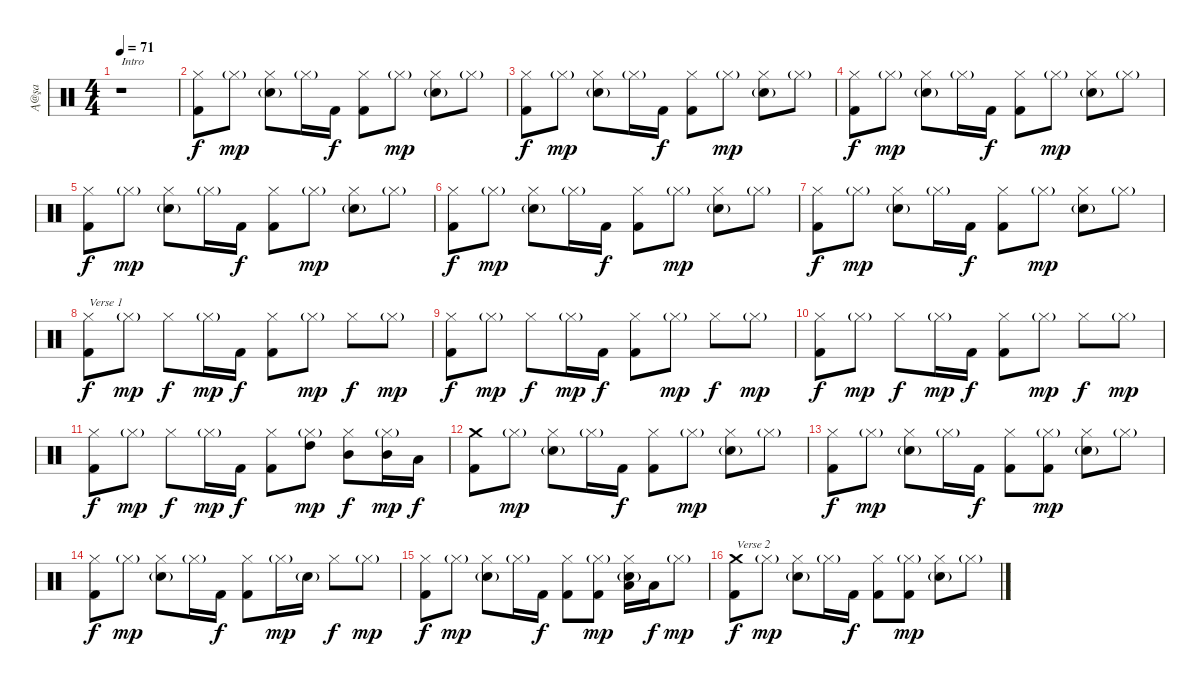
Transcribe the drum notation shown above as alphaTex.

\track ("Ą@şa" "Ą@şa") {instrument percussion}
\staff {score}
\articulation defaults
\ts (4 4)
\tempo 71
\clef neutral
\ks c
r.1{txt "Intro" dy f} |
("Hi-Hat (closed)" "Kick (hit) 2").8 "Hi-Hat (closed)"{g}.8{dy mp} ("Hi-Hat (closed)" "Snare (hit) 2"{g}).8 "Hi-Hat (closed)"{g}.16 "Kick (hit) 2".16{dy f} ("Hi-Hat (closed)" "Kick (hit) 2").8 "Hi-Hat (closed)"{g}.8{dy mp} ("Hi-Hat (closed)" "Snare (hit) 2"{g}).8 "Hi-Hat (closed)"{g}.8 |
("Hi-Hat (closed)" "Kick (hit) 2").8{dy f} "Hi-Hat (closed)"{g}.8{dy mp} ("Hi-Hat (closed)" "Snare (hit) 2"{g}).8 "Hi-Hat (closed)"{g}.16 "Kick (hit) 2".16{dy f} ("Hi-Hat (closed)" "Kick (hit) 2").8 "Hi-Hat (closed)"{g}.8{dy mp} ("Hi-Hat (closed)" "Snare (hit) 2"{g}).8 "Hi-Hat (closed)"{g}.8 |
("Hi-Hat (closed)" "Kick (hit) 2").8{dy f} "Hi-Hat (closed)"{g}.8{dy mp} ("Hi-Hat (closed)" "Snare (hit) 2"{g}).8 "Hi-Hat (closed)"{g}.16 "Kick (hit) 2".16{dy f} ("Hi-Hat (closed)" "Kick (hit) 2").8 "Hi-Hat (closed)"{g}.8{dy mp} ("Hi-Hat (closed)" "Snare (hit) 2"{g}).8 "Hi-Hat (closed)"{g}.8 |
("Hi-Hat (closed)" "Kick (hit) 2").8{dy f} "Hi-Hat (closed)"{g}.8{dy mp} ("Hi-Hat (closed)" "Snare (hit) 2"{g}).8 "Hi-Hat (closed)"{g}.16 "Kick (hit) 2".16{dy f} ("Hi-Hat (closed)" "Kick (hit) 2").8 "Hi-Hat (closed)"{g}.8{dy mp} ("Hi-Hat (closed)" "Snare (hit) 2"{g}).8 "Hi-Hat (closed)"{g}.8 |
("Hi-Hat (closed)" "Kick (hit) 2").8{dy f} "Hi-Hat (closed)"{g}.8{dy mp} ("Hi-Hat (closed)" "Snare (hit) 2"{g}).8 "Hi-Hat (closed)"{g}.16 "Kick (hit) 2".16{dy f} ("Hi-Hat (closed)" "Kick (hit) 2").8 "Hi-Hat (closed)"{g}.8{dy mp} ("Hi-Hat (closed)" "Snare (hit) 2"{g}).8 "Hi-Hat (closed)"{g}.8 |
("Hi-Hat (closed)" "Kick (hit) 2").8{dy f} "Hi-Hat (closed)"{g}.8{dy mp} ("Hi-Hat (closed)" "Snare (hit) 2"{g}).8 "Hi-Hat (closed)"{g}.16 "Kick (hit) 2".16{dy f} ("Hi-Hat (closed)" "Kick (hit) 2").8 "Hi-Hat (closed)"{g}.8{dy mp} ("Hi-Hat (closed)" "Snare (hit) 2"{g}).8 "Hi-Hat (closed)"{g}.8 |
("Hi-Hat (closed)" "Kick (hit) 2").8{txt "Verse 1" dy f} "Hi-Hat (closed)"{g}.8{dy mp} "Hi-Hat (closed)".8{dy f} "Hi-Hat (closed)"{g}.16{dy mp} "Kick (hit) 2".16{dy f} ("Hi-Hat (closed)" "Kick (hit) 2").8 "Hi-Hat (closed)"{g}.8{dy mp} "Hi-Hat (closed)".8{dy f} "Hi-Hat (closed)"{g}.8{dy mp} |
("Hi-Hat (closed)" "Kick (hit) 2").8{dy f} "Hi-Hat (closed)"{g}.8{dy mp} "Hi-Hat (closed)".8{dy f} "Hi-Hat (closed)"{g}.16{dy mp} "Kick (hit) 2".16{dy f} ("Hi-Hat (closed)" "Kick (hit) 2").8 "Hi-Hat (closed)"{g}.8{dy mp} "Hi-Hat (closed)".8{dy f} "Hi-Hat (closed)"{g}.8{dy mp} |
("Hi-Hat (closed)" "Kick (hit) 2").8{dy f} "Hi-Hat (closed)"{g}.8{dy mp} "Hi-Hat (closed)".8{dy f} "Hi-Hat (closed)"{g}.16{dy mp} "Kick (hit) 2".16{dy f} ("Hi-Hat (closed)" "Kick (hit) 2").8 "Hi-Hat (closed)"{g}.8{dy mp} "Hi-Hat (closed)".8{dy f} "Hi-Hat (closed)"{g}.8{dy mp} |
("Hi-Hat (closed)" "Kick (hit) 2").8{dy f} "Hi-Hat (closed)"{g}.8{dy mp} "Hi-Hat (closed)".8{dy f} "Hi-Hat (closed)"{g}.16{dy mp} "Kick (hit) 2".16{dy f} ("Hi-Hat (closed)" "Kick (hit) 2").8 ("Hi-Hat (closed)"{g} "High Tom (hit)").8{dy mp} ("Hi-Hat (closed)" "Mid Tom (hit)").8{dy f} ("Hi-Hat (closed)"{g} "Mid Tom (hit)").16{dy mp} "Low Tom (hit)".16{dy f} |
("Crash medium (hit)" "Kick (hit) 2").8 "Hi-Hat (closed)"{g}.8{dy mp} ("Hi-Hat (closed)" "Snare (hit) 2"{g}).8 "Hi-Hat (closed)"{g}.16 "Kick (hit) 2".16{dy f} ("Hi-Hat (closed)" "Kick (hit) 2").8 "Hi-Hat (closed)"{g}.8{dy mp} ("Hi-Hat (closed)" "Snare (hit) 2"{g}).8 "Hi-Hat (closed)"{g}.8 |
("Hi-Hat (closed)" "Kick (hit) 2").8{dy f} "Hi-Hat (closed)"{g}.8{dy mp} ("Hi-Hat (closed)" "Snare (hit) 2"{g}).8 "Hi-Hat (closed)"{g}.16 "Kick (hit) 2".16{dy f} ("Hi-Hat (closed)" "Kick (hit) 2").8 ("Hi-Hat (closed)"{g} "Kick (hit) 2").8{dy mp} ("Hi-Hat (closed)" "Snare (hit) 2"{g}).8 "Hi-Hat (closed)"{g}.8 |
("Hi-Hat (closed)" "Kick (hit) 2").8{dy f} "Hi-Hat (closed)"{g}.8{dy mp} ("Hi-Hat (closed)" "Snare (hit) 2"{g}).8 "Hi-Hat (closed)"{g}.16 "Kick (hit) 2".16{dy f} ("Hi-Hat (closed)" "Kick (hit) 2").8 "Hi-Hat (closed)"{g}.16{dy mp} "Snare (hit) 2"{g}.16 "Hi-Hat (closed)".8{dy f} "Hi-Hat (closed)"{g}.8{dy mp} |
("Hi-Hat (closed)" "Kick (hit) 2").8{dy f} "Hi-Hat (closed)"{g}.8{dy mp} ("Hi-Hat (closed)" "Snare (hit) 2"{g}).8 "Hi-Hat (closed)"{g}.16 "Kick (hit) 2".16{dy f} ("Hi-Hat (closed)" "Kick (hit) 2").8 ("Hi-Hat (closed)"{g} "Kick (hit) 2").8{dy mp} ("Hi-Hat (closed)" "Low Tom (hit)" "Snare (hit) 2"{g}).16 "Low Tom (hit)".16{dy f} "Hi-Hat (closed)"{g}.8{dy mp} |
("Crash medium (hit)" "Kick (hit) 2").8{txt "Verse 2" dy f} "Hi-Hat (closed)"{g}.8{dy mp} ("Hi-Hat (closed)" "Snare (hit) 2"{g}).8 "Hi-Hat (closed)"{g}.16 "Kick (hit) 2".16{dy f} ("Hi-Hat (closed)" "Kick (hit) 2").8 ("Hi-Hat (closed)"{g} "Kick (hit) 2").8{dy mp} ("Hi-Hat (closed)" "Snare (hit) 2"{g}).8 "Hi-Hat (closed)"{g}.8
